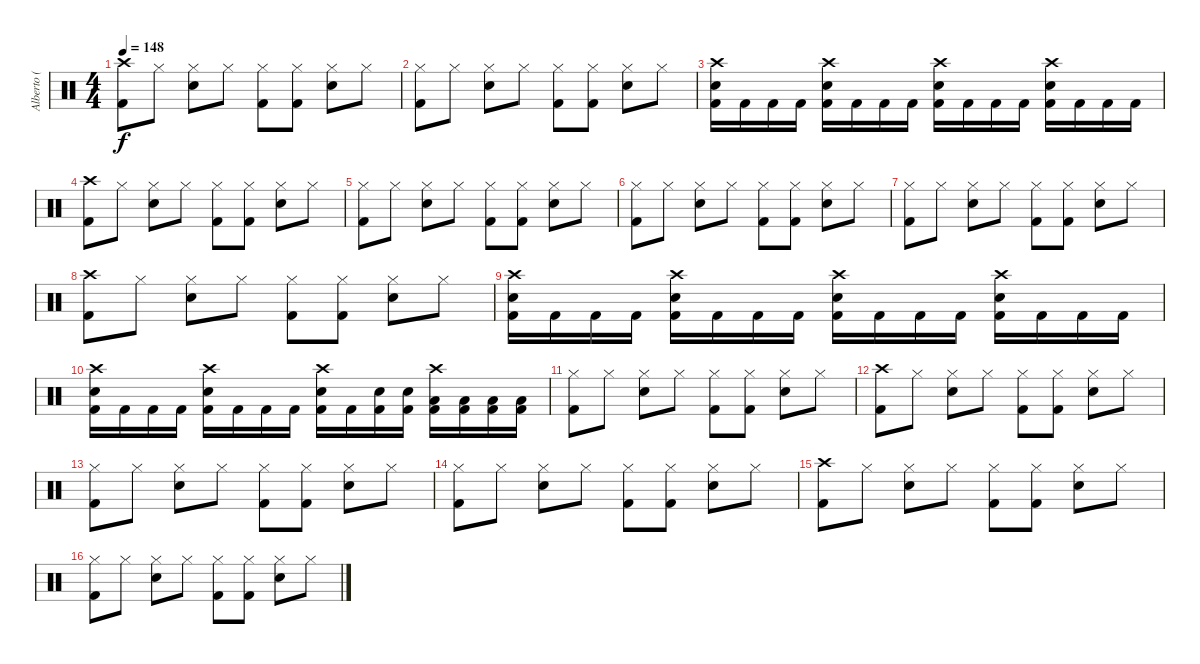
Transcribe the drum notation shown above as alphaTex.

\track ("Alberto ( Tohi )" "Alberto ( ") {instrument percussion}
\staff {score}
\articulation defaults
\ts (4 4)
\tempo 148
\clef neutral
\ks c
("Crash high (hit)" "Kick (hit) 2").8{dy f} "Hi-Hat (closed)".8 ("Hi-Hat (closed)" "Electric Snare (hit)").8 "Hi-Hat (closed)".8 ("Hi-Hat (closed)" "Kick (hit) 2").8 ("Hi-Hat (closed)" "Kick (hit) 2").8 ("Hi-Hat (closed)" "Electric Snare (hit)").8 "Hi-Hat (closed)".8 |
("Hi-Hat (closed)" "Kick (hit) 2").8 "Hi-Hat (closed)".8 ("Hi-Hat (closed)" "Electric Snare (hit)").8 "Hi-Hat (closed)".8 ("Hi-Hat (closed)" "Kick (hit) 2").8 ("Hi-Hat (closed)" "Kick (hit) 2").8 ("Hi-Hat (closed)" "Electric Snare (hit)").8 "Hi-Hat (closed)".8 |
("Crash high (hit)" "Electric Snare (hit)" "Kick (hit) 2").16 "Kick (hit) 2".16 "Kick (hit) 2".16 "Kick (hit) 2".16 ("Crash high (hit)" "Electric Snare (hit)" "Kick (hit) 2").16 "Kick (hit) 2".16 "Kick (hit) 2".16 "Kick (hit) 2".16 ("Crash high (hit)" "Electric Snare (hit)" "Kick (hit) 2").16 "Kick (hit) 2".16 "Kick (hit) 2".16 "Kick (hit) 2".16 ("Crash high (hit)" "Electric Snare (hit)" "Kick (hit) 2").16 "Kick (hit) 2".16 "Kick (hit) 2".16 "Kick (hit) 2".16 |
("Crash high (hit)" "Kick (hit) 2").8 "Hi-Hat (closed)".8 ("Hi-Hat (closed)" "Electric Snare (hit)").8 "Hi-Hat (closed)".8 ("Hi-Hat (closed)" "Kick (hit) 2").8 ("Hi-Hat (closed)" "Kick (hit) 2").8 ("Hi-Hat (closed)" "Electric Snare (hit)").8 "Hi-Hat (closed)".8 |
("Hi-Hat (closed)" "Kick (hit) 2").8 "Hi-Hat (closed)".8 ("Hi-Hat (closed)" "Electric Snare (hit)").8 "Hi-Hat (closed)".8 ("Hi-Hat (closed)" "Kick (hit) 2").8 ("Hi-Hat (closed)" "Kick (hit) 2").8 ("Hi-Hat (closed)" "Electric Snare (hit)").8 "Hi-Hat (closed)".8 |
("Hi-Hat (closed)" "Kick (hit) 2").8 "Hi-Hat (closed)".8 ("Hi-Hat (closed)" "Electric Snare (hit)").8 "Hi-Hat (closed)".8 ("Hi-Hat (closed)" "Kick (hit) 2").8 ("Hi-Hat (closed)" "Kick (hit) 2").8 ("Hi-Hat (closed)" "Electric Snare (hit)").8 "Hi-Hat (closed)".8 |
("Hi-Hat (closed)" "Kick (hit) 2").8 "Hi-Hat (closed)".8 ("Hi-Hat (closed)" "Electric Snare (hit)").8 "Hi-Hat (closed)".8 ("Hi-Hat (closed)" "Kick (hit) 2").8 ("Hi-Hat (closed)" "Kick (hit) 2").8 ("Hi-Hat (closed)" "Electric Snare (hit)").8 "Hi-Hat (closed)".8 |
("Crash high (hit)" "Kick (hit) 2").8 "Hi-Hat (closed)".8 ("Hi-Hat (closed)" "Electric Snare (hit)").8 "Hi-Hat (closed)".8 ("Hi-Hat (closed)" "Kick (hit) 2").8 ("Hi-Hat (closed)" "Kick (hit) 2").8 ("Hi-Hat (closed)" "Electric Snare (hit)").8 "Hi-Hat (closed)".8 |
("Crash high (hit)" "Electric Snare (hit)" "Kick (hit) 2").16 "Kick (hit) 2".16 "Kick (hit) 2".16 "Kick (hit) 2".16 ("Crash high (hit)" "Electric Snare (hit)" "Kick (hit) 2").16 "Kick (hit) 2".16 "Kick (hit) 2".16 "Kick (hit) 2".16 ("Crash high (hit)" "Electric Snare (hit)" "Kick (hit) 2").16 "Kick (hit) 2".16 "Kick (hit) 2".16 "Kick (hit) 2".16 ("Crash high (hit)" "Electric Snare (hit)" "Kick (hit) 2").16 "Kick (hit) 2".16 "Kick (hit) 2".16 "Kick (hit) 2".16 |
("Crash high (hit)" "Electric Snare (hit)" "Kick (hit) 2").16 "Kick (hit) 2".16 "Kick (hit) 2".16 "Kick (hit) 2".16 ("Crash high (hit)" "Electric Snare (hit)" "Kick (hit) 2").16 "Kick (hit) 2".16 "Kick (hit) 2".16 "Kick (hit) 2".16 ("Crash high (hit)" "Electric Snare (hit)" "Kick (hit) 2").16 "Kick (hit) 2".16 ("Electric Snare (hit)" "Kick (hit) 2").16 ("Electric Snare (hit)" "Kick (hit) 2").16 ("Crash high (hit)" "Low Tom (hit)" "Kick (hit) 2").16 ("Low Tom (hit)" "Kick (hit) 2").16 ("Low Floor Tom (hit)" "Kick (hit) 2").16 ("Low Floor Tom (hit)" "Kick (hit) 2").16 |
("Hi-Hat (closed)" "Kick (hit) 2").8 "Hi-Hat (closed)".8 ("Hi-Hat (closed)" "Electric Snare (hit)").8 "Hi-Hat (closed)".8 ("Hi-Hat (closed)" "Kick (hit) 2").8 ("Hi-Hat (closed)" "Kick (hit) 2").8 ("Hi-Hat (closed)" "Electric Snare (hit)").8 "Hi-Hat (closed)".8 |
("Crash high (hit)" "Kick (hit) 2").8 "Hi-Hat (closed)".8 ("Hi-Hat (closed)" "Electric Snare (hit)").8 "Hi-Hat (closed)".8 ("Hi-Hat (closed)" "Kick (hit) 2").8 ("Hi-Hat (closed)" "Kick (hit) 2").8 ("Hi-Hat (closed)" "Electric Snare (hit)").8 "Hi-Hat (closed)".8 |
("Hi-Hat (closed)" "Kick (hit) 2").8 "Hi-Hat (closed)".8 ("Hi-Hat (closed)" "Electric Snare (hit)").8 "Hi-Hat (closed)".8 ("Hi-Hat (closed)" "Kick (hit) 2").8 ("Hi-Hat (closed)" "Kick (hit) 2").8 ("Hi-Hat (closed)" "Electric Snare (hit)").8 "Hi-Hat (closed)".8 |
("Hi-Hat (closed)" "Kick (hit) 2").8 "Hi-Hat (closed)".8 ("Hi-Hat (closed)" "Electric Snare (hit)").8 "Hi-Hat (closed)".8 ("Hi-Hat (closed)" "Kick (hit) 2").8 ("Hi-Hat (closed)" "Kick (hit) 2").8 ("Hi-Hat (closed)" "Electric Snare (hit)").8 "Hi-Hat (closed)".8 |
("Crash high (hit)" "Kick (hit) 2").8 "Hi-Hat (closed)".8 ("Hi-Hat (closed)" "Electric Snare (hit)").8 "Hi-Hat (closed)".8 ("Hi-Hat (closed)" "Kick (hit) 2").8 ("Hi-Hat (closed)" "Kick (hit) 2").8 ("Hi-Hat (closed)" "Electric Snare (hit)").8 "Hi-Hat (closed)".8 |
("Hi-Hat (closed)" "Kick (hit) 2").8 "Hi-Hat (closed)".8 ("Hi-Hat (closed)" "Electric Snare (hit)").8 "Hi-Hat (closed)".8 ("Hi-Hat (closed)" "Kick (hit) 2").8 ("Hi-Hat (closed)" "Kick (hit) 2").8 ("Hi-Hat (closed)" "Electric Snare (hit)").8 "Hi-Hat (closed)".8
